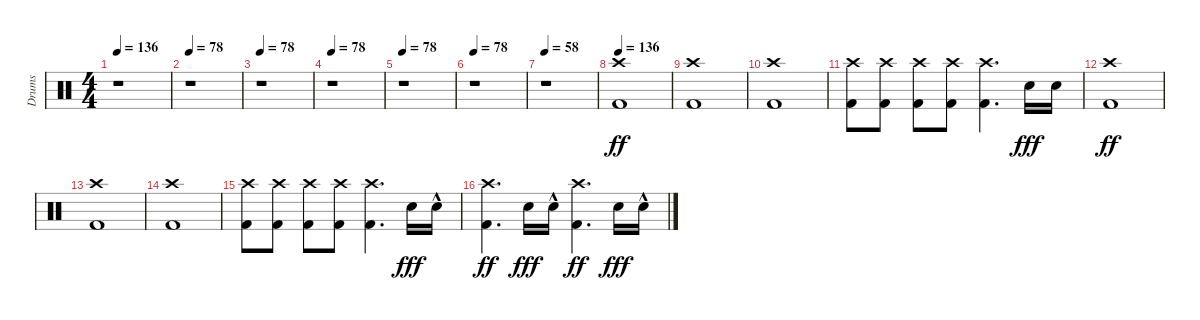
\track ("Drums" "Drums") {instrument percussion}
\staff {score}
\articulation defaults
\ts (4 4)
\tempo 136
\clef neutral
\ks c
r.1{dy ff} |
\tempo 78
r.1 |
\tempo 78
r.1 |
\tempo 78
r.1 |
\tempo 78
r.1 |
\tempo 78
r.1 |
\tempo 58
r.1 |
\tempo 136
("Kick (hit) 2" "Crash high (hit)").1 |
("Kick (hit) 2" "Crash high (hit)").1 |
("Kick (hit) 2" "Crash high (hit)").1 |
("Kick (hit) 2" "Crash high (hit)").8 ("Kick (hit) 2" "Crash high (hit)").8 ("Kick (hit) 2" "Crash high (hit)").8 ("Kick (hit) 2" "Crash high (hit)").8 ("Kick (hit) 2" "Crash high (hit)").4{d} "Snare (hit) 2".16{dy fff} "Snare (hit) 2".16 |
("Kick (hit) 2" "Crash high (hit)").1{dy ff} |
("Kick (hit) 2" "Crash high (hit)").1 |
("Kick (hit) 2" "Crash high (hit)").1 |
("Kick (hit) 2" "Crash high (hit)").8 ("Kick (hit) 2" "Crash high (hit)").8 ("Kick (hit) 2" "Crash high (hit)").8 ("Kick (hit) 2" "Crash high (hit)").8 ("Kick (hit) 2" "Crash high (hit)").4{d} "Snare (hit) 2".16{dy fff} "Snare (hit) 2"{hac}.16 |
("Kick (hit) 2" "Crash high (hit)").4{d dy ff} "Snare (hit) 2".16{dy fff} "Snare (hit) 2"{hac}.16 ("Kick (hit) 2" "Crash high (hit)").4{d dy ff} "Snare (hit) 2".16{dy fff} "Snare (hit) 2"{hac}.16
